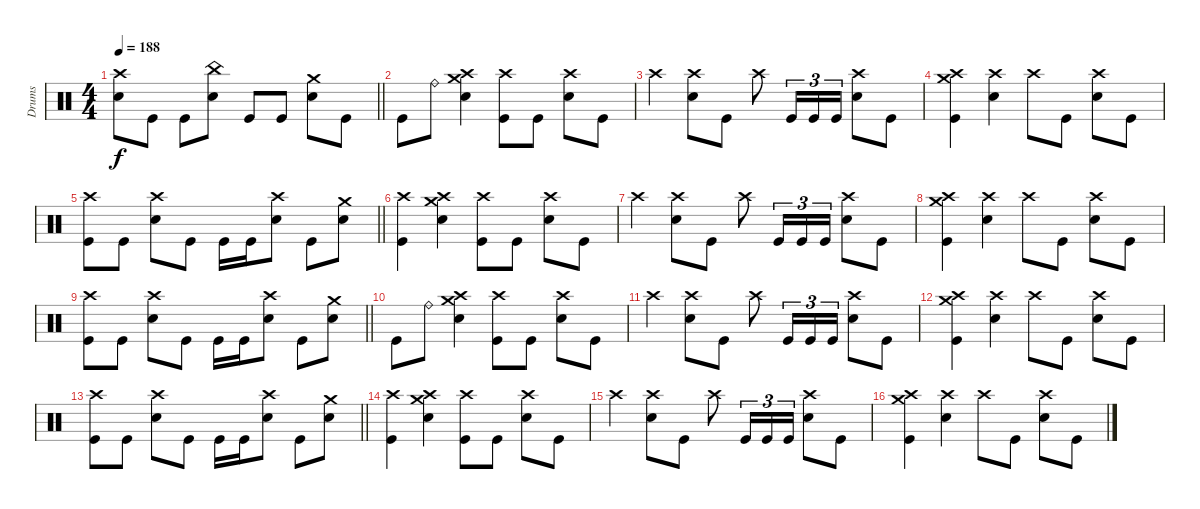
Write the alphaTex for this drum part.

\track ("Drums" "Drums") {instrument percussion}
\staff
\articulation defaults
\ts (4 4)
\tempo 188
\clef neutral
\barLineRight lightlight
\ks c
("Crash high (hit)" "Electric Snare (hit)").8{dy f} "Kick (hit)".8 "Kick (hit)".8 ("China (hit)" "Electric Snare (hit)").8 "Kick (hit)".8 "Kick (hit)".8 ("Crash medium (hit)" "Electric Snare (hit)").8 "Kick (hit)".8 |
\section ("" "")
"Kick (hit)".8 "Ride (bell)".8 ("Crash medium (hit)" "Crash high (hit)" "Electric Snare (hit)").4 ("Crash high (hit)" "Kick (hit)").8 "Kick (hit)".8 ("Crash high (hit)" "Electric Snare (hit)").8 "Kick (hit)".8 |
"Crash high (hit)".4 ("Crash high (hit)" "Electric Snare (hit)").8 "Kick (hit)".8 "Crash high (hit)".8 "Kick (hit)".16{tu (3 2)} "Kick (hit)".16{tu (3 2)} "Kick (hit)".16{tu (3 2)} ("Crash high (hit)" "Electric Snare (hit)").8 "Kick (hit)".8 |
("Crash medium (hit)" "Crash high (hit)" "Kick (hit)").4 ("Crash high (hit)" "Electric Snare (hit)").4 "Crash high (hit)".8 "Kick (hit)".8 ("Crash high (hit)" "Electric Snare (hit)").8 "Kick (hit)".8 |
\barLineRight lightlight
("Crash high (hit)" "Kick (hit)").8 "Kick (hit)".8 ("Crash high (hit)" "Electric Snare (hit)").8 "Kick (hit)".8 "Kick (hit)".16 "Kick (hit)".16 ("Crash high (hit)" "Electric Snare (hit)").8 "Kick (hit)".8 ("Crash medium (hit)" "Electric Snare (hit)").8 |
("Crash high (hit)" "Kick (hit)").4 ("Crash medium (hit)" "Crash high (hit)" "Electric Snare (hit)").4 ("Crash high (hit)" "Kick (hit)").8 "Kick (hit)".8 ("Crash high (hit)" "Electric Snare (hit)").8 "Kick (hit)".8 |
"Crash high (hit)".4 ("Crash high (hit)" "Electric Snare (hit)").8 "Kick (hit)".8 "Crash high (hit)".8 "Kick (hit)".16{tu (3 2)} "Kick (hit)".16{tu (3 2)} "Kick (hit)".16{tu (3 2)} ("Crash high (hit)" "Electric Snare (hit)").8 "Kick (hit)".8 |
("Crash medium (hit)" "Crash high (hit)" "Kick (hit)").4 ("Crash high (hit)" "Electric Snare (hit)").4 "Crash high (hit)".8 "Kick (hit)".8 ("Crash high (hit)" "Electric Snare (hit)").8 "Kick (hit)".8 |
\barLineRight lightlight
("Crash high (hit)" "Kick (hit)").8 "Kick (hit)".8 ("Crash high (hit)" "Electric Snare (hit)").8 "Kick (hit)".8 "Kick (hit)".16 "Kick (hit)".16 ("Crash high (hit)" "Electric Snare (hit)").8 "Kick (hit)".8 ("Crash medium (hit)" "Electric Snare (hit)").8 |
"Kick (hit)".8 "Ride (bell)".8 ("Crash medium (hit)" "Crash high (hit)" "Electric Snare (hit)").4 ("Crash high (hit)" "Kick (hit)").8 "Kick (hit)".8 ("Crash high (hit)" "Electric Snare (hit)").8 "Kick (hit)".8 |
"Crash high (hit)".4 ("Crash high (hit)" "Electric Snare (hit)").8 "Kick (hit)".8 "Crash high (hit)".8 "Kick (hit)".16{tu (3 2)} "Kick (hit)".16{tu (3 2)} "Kick (hit)".16{tu (3 2)} ("Crash high (hit)" "Electric Snare (hit)").8 "Kick (hit)".8 |
("Crash medium (hit)" "Crash high (hit)" "Kick (hit)").4 ("Crash high (hit)" "Electric Snare (hit)").4 "Crash high (hit)".8 "Kick (hit)".8 ("Crash high (hit)" "Electric Snare (hit)").8 "Kick (hit)".8 |
\barLineRight lightlight
("Crash high (hit)" "Kick (hit)").8 "Kick (hit)".8 ("Crash high (hit)" "Electric Snare (hit)").8 "Kick (hit)".8 "Kick (hit)".16 "Kick (hit)".16 ("Crash high (hit)" "Electric Snare (hit)").8 "Kick (hit)".8 ("Crash medium (hit)" "Electric Snare (hit)").8 |
("Crash high (hit)" "Kick (hit)").4 ("Crash medium (hit)" "Crash high (hit)" "Electric Snare (hit)").4 ("Crash high (hit)" "Kick (hit)").8 "Kick (hit)".8 ("Crash high (hit)" "Electric Snare (hit)").8 "Kick (hit)".8 |
"Crash high (hit)".4 ("Crash high (hit)" "Electric Snare (hit)").8 "Kick (hit)".8 "Crash high (hit)".8 "Kick (hit)".16{tu (3 2)} "Kick (hit)".16{tu (3 2)} "Kick (hit)".16{tu (3 2)} ("Crash high (hit)" "Electric Snare (hit)").8 "Kick (hit)".8 |
("Crash medium (hit)" "Crash high (hit)" "Kick (hit)").4 ("Crash high (hit)" "Electric Snare (hit)").4 "Crash high (hit)".8 "Kick (hit)".8 ("Crash high (hit)" "Electric Snare (hit)").8 "Kick (hit)".8
